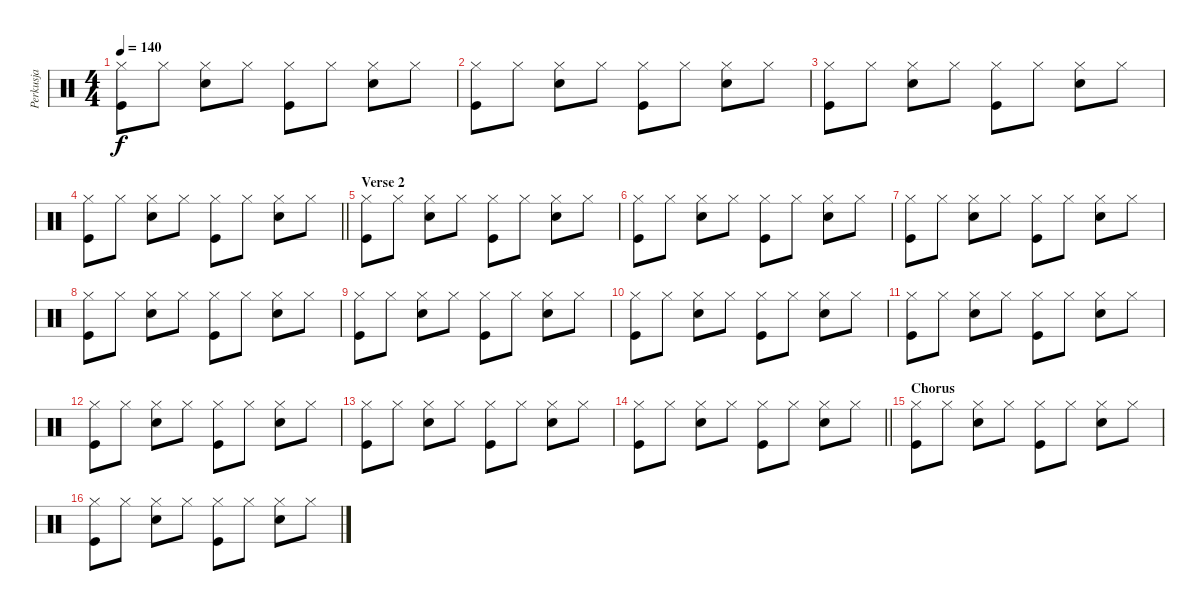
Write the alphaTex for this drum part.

\track ("Perkusja" "Perkusja") {instrument percussion}
\staff {score}
\articulation defaults
\ts (4 4)
\tempo 140
\clef neutral
\ks c
("Hi-Hat (closed)" "Kick (hit)").8{dy f} "Hi-Hat (closed)".8 ("Hi-Hat (closed)" "Electric Snare (hit)").8 "Hi-Hat (closed)".8 ("Hi-Hat (closed)" "Kick (hit)").8 "Hi-Hat (closed)".8 ("Hi-Hat (closed)" "Electric Snare (hit)").8 "Hi-Hat (closed)".8 |
("Hi-Hat (closed)" "Kick (hit)").8 "Hi-Hat (closed)".8 ("Hi-Hat (closed)" "Electric Snare (hit)").8 "Hi-Hat (closed)".8 ("Hi-Hat (closed)" "Kick (hit)").8 "Hi-Hat (closed)".8 ("Hi-Hat (closed)" "Electric Snare (hit)").8 "Hi-Hat (closed)".8 |
("Hi-Hat (closed)" "Kick (hit)").8 "Hi-Hat (closed)".8 ("Hi-Hat (closed)" "Electric Snare (hit)").8 "Hi-Hat (closed)".8 ("Hi-Hat (closed)" "Kick (hit)").8 "Hi-Hat (closed)".8 ("Hi-Hat (closed)" "Electric Snare (hit)").8 "Hi-Hat (closed)".8 |
\barLineRight lightlight
("Hi-Hat (closed)" "Kick (hit)").8 "Hi-Hat (closed)".8 ("Hi-Hat (closed)" "Electric Snare (hit)").8 "Hi-Hat (closed)".8 ("Hi-Hat (closed)" "Kick (hit)").8 "Hi-Hat (closed)".8 ("Hi-Hat (closed)" "Electric Snare (hit)").8 "Hi-Hat (closed)".8 |
\section ("" "Verse 2")
("Hi-Hat (closed)" "Kick (hit)").8 "Hi-Hat (closed)".8 ("Hi-Hat (closed)" "Electric Snare (hit)").8 "Hi-Hat (closed)".8 ("Hi-Hat (closed)" "Kick (hit)").8 "Hi-Hat (closed)".8 ("Hi-Hat (closed)" "Electric Snare (hit)").8 "Hi-Hat (closed)".8 |
("Hi-Hat (closed)" "Kick (hit)").8 "Hi-Hat (closed)".8 ("Hi-Hat (closed)" "Electric Snare (hit)").8 "Hi-Hat (closed)".8 ("Hi-Hat (closed)" "Kick (hit)").8 "Hi-Hat (closed)".8 ("Hi-Hat (closed)" "Electric Snare (hit)").8 "Hi-Hat (closed)".8 |
("Hi-Hat (closed)" "Kick (hit)").8 "Hi-Hat (closed)".8 ("Hi-Hat (closed)" "Electric Snare (hit)").8 "Hi-Hat (closed)".8 ("Hi-Hat (closed)" "Kick (hit)").8 "Hi-Hat (closed)".8 ("Hi-Hat (closed)" "Electric Snare (hit)").8 "Hi-Hat (closed)".8 |
("Hi-Hat (closed)" "Kick (hit)").8 "Hi-Hat (closed)".8 ("Hi-Hat (closed)" "Electric Snare (hit)").8 "Hi-Hat (closed)".8 ("Hi-Hat (closed)" "Kick (hit)").8 "Hi-Hat (closed)".8 ("Hi-Hat (closed)" "Electric Snare (hit)").8 "Hi-Hat (closed)".8 |
("Hi-Hat (closed)" "Kick (hit)").8 "Hi-Hat (closed)".8 ("Hi-Hat (closed)" "Electric Snare (hit)").8 "Hi-Hat (closed)".8 ("Hi-Hat (closed)" "Kick (hit)").8 "Hi-Hat (closed)".8 ("Hi-Hat (closed)" "Electric Snare (hit)").8 "Hi-Hat (closed)".8 |
("Hi-Hat (closed)" "Kick (hit)").8 "Hi-Hat (closed)".8 ("Hi-Hat (closed)" "Electric Snare (hit)").8 "Hi-Hat (closed)".8 ("Hi-Hat (closed)" "Kick (hit)").8 "Hi-Hat (closed)".8 ("Hi-Hat (closed)" "Electric Snare (hit)").8 "Hi-Hat (closed)".8 |
("Hi-Hat (closed)" "Kick (hit)").8 "Hi-Hat (closed)".8 ("Hi-Hat (closed)" "Electric Snare (hit)").8 "Hi-Hat (closed)".8 ("Hi-Hat (closed)" "Kick (hit)").8 "Hi-Hat (closed)".8 ("Hi-Hat (closed)" "Electric Snare (hit)").8 "Hi-Hat (closed)".8 |
("Hi-Hat (closed)" "Kick (hit)").8 "Hi-Hat (closed)".8 ("Hi-Hat (closed)" "Electric Snare (hit)").8 "Hi-Hat (closed)".8 ("Hi-Hat (closed)" "Kick (hit)").8 "Hi-Hat (closed)".8 ("Hi-Hat (closed)" "Electric Snare (hit)").8 "Hi-Hat (closed)".8 |
("Hi-Hat (closed)" "Kick (hit)").8 "Hi-Hat (closed)".8 ("Hi-Hat (closed)" "Electric Snare (hit)").8 "Hi-Hat (closed)".8 ("Hi-Hat (closed)" "Kick (hit)").8 "Hi-Hat (closed)".8 ("Hi-Hat (closed)" "Electric Snare (hit)").8 "Hi-Hat (closed)".8 |
\barLineRight lightlight
("Hi-Hat (closed)" "Kick (hit)").8 "Hi-Hat (closed)".8 ("Hi-Hat (closed)" "Electric Snare (hit)").8 "Hi-Hat (closed)".8 ("Hi-Hat (closed)" "Kick (hit)").8 "Hi-Hat (closed)".8 ("Hi-Hat (closed)" "Electric Snare (hit)").8 "Hi-Hat (closed)".8 |
\section ("" "Chorus")
("Hi-Hat (closed)" "Kick (hit)").8 "Hi-Hat (closed)".8 ("Hi-Hat (closed)" "Electric Snare (hit)").8 "Hi-Hat (closed)".8 ("Hi-Hat (closed)" "Kick (hit)").8 "Hi-Hat (closed)".8 ("Hi-Hat (closed)" "Electric Snare (hit)").8 "Hi-Hat (closed)".8 |
("Hi-Hat (closed)" "Kick (hit)").8 "Hi-Hat (closed)".8 ("Hi-Hat (closed)" "Electric Snare (hit)").8 "Hi-Hat (closed)".8 ("Hi-Hat (closed)" "Kick (hit)").8 "Hi-Hat (closed)".8 ("Hi-Hat (closed)" "Electric Snare (hit)").8 "Hi-Hat (closed)".8
